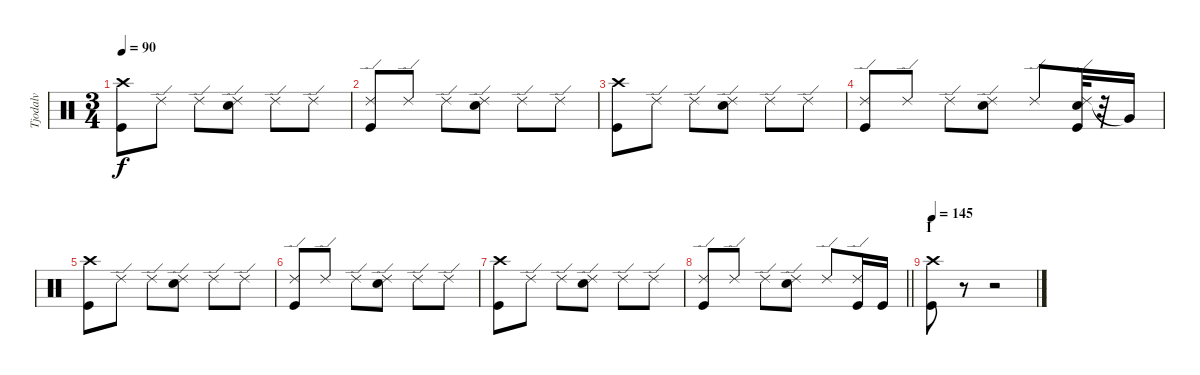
\track ("Tjodalv" "Tjodalv") {instrument percussion}
\staff {score}
\articulation defaults
\ts (3 4)
\tempo 90
\clef neutral
\ks c
("Crash high (hit)" "Kick (hit)").8{dy f} "Ride (edge) 2".8 "Ride (edge) 2".8 ("Ride (edge) 2" "Snare (hit) 2").8 "Ride (edge) 2".8 "Ride (edge) 2".8 |
("Ride (edge) 2" "Kick (hit)").8 "Ride (edge) 2".8 "Ride (edge) 2".8 ("Ride (edge) 2" "Snare (hit) 2").8 "Ride (edge) 2".8 "Ride (edge) 2".8 |
("Crash high (hit)" "Kick (hit)").8 "Ride (edge) 2".8 "Ride (edge) 2".8 ("Ride (edge) 2" "Snare (hit) 2").8 "Ride (edge) 2".8 "Ride (edge) 2".8 |
("Ride (edge) 2" "Kick (hit)").8 "Ride (edge) 2".8 "Ride (edge) 2".8 ("Ride (edge) 2" "Snare (hit) 2").8 "Ride (edge) 2".8 ("Ride (edge) 2" "Snare (hit) 2" "Kick (hit)").32 r.32 "Very Low Tom (hit)"{t}.16 |
("Crash high (hit)" "Kick (hit)").8 "Ride (edge) 2".8 "Ride (edge) 2".8 ("Ride (edge) 2" "Snare (hit) 2").8 "Ride (edge) 2".8 "Ride (edge) 2".8 |
("Ride (edge) 2" "Kick (hit)").8 "Ride (edge) 2".8 "Ride (edge) 2".8 ("Ride (edge) 2" "Snare (hit) 2").8 "Ride (edge) 2".8 "Ride (edge) 2".8 |
("Crash high (hit)" "Kick (hit)").8 "Ride (edge) 2".8 "Ride (edge) 2".8 ("Ride (edge) 2" "Snare (hit) 2").8 "Ride (edge) 2".8 "Ride (edge) 2".8 |
\barLineRight lightlight
("Ride (edge) 2" "Kick (hit)").8 "Ride (edge) 2".8 "Ride (edge) 2".8 ("Ride (edge) 2" "Snare (hit) 2").8 "Ride (edge) 2".8 ("Ride (edge) 2" "Kick (hit)").16 "Kick (hit)".16 |
\section ("" "I")
\tempo 145
("Crash high (hit)" "Kick (hit)").8 r.8 r.2
